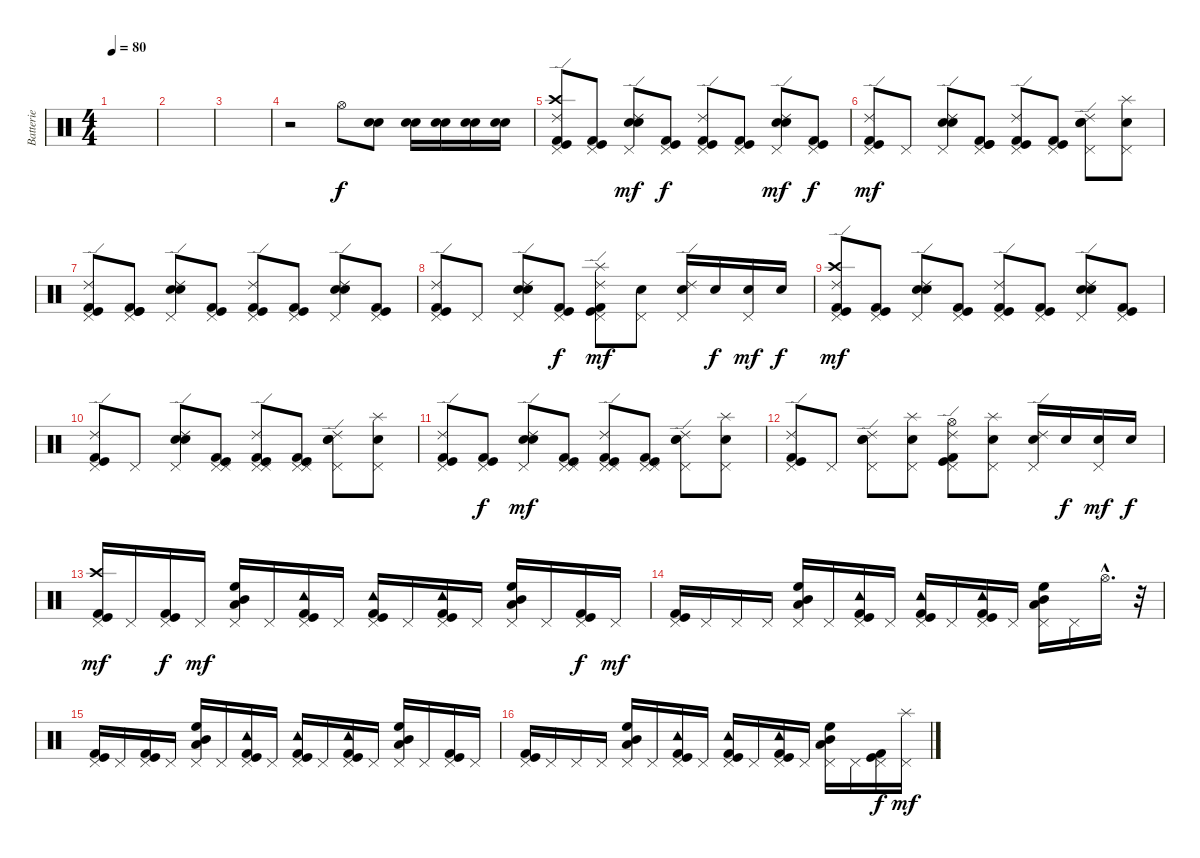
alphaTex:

\track ("Batterie" "Batterie") {instrument percussion}
\staff {score}
\articulation defaults
\ts (4 4)
\tempo 80
\clef neutral
\ks c
|
|
|
r.2 "Hi-Hat (open)".8 ("Electric Snare (hit)" "Snare (hit) 2").8 ("Electric Snare (hit)" "Snare (hit) 2").16 ("Electric Snare (hit)" "Snare (hit) 2").16 ("Electric Snare (hit)" "Snare (hit) 2").16 ("Electric Snare (hit)" "Snare (hit) 2").16 |
("Pedal Hi-Hat (hit)" "Crash high (hit)" "Ride (edge) 2" "Kick (hit)" "Kick (hit) 2").8 ("Pedal Hi-Hat (hit)" "Kick (hit)" "Kick (hit) 2").8{dy f} ("Pedal Hi-Hat (hit)" "Electric Snare (hit)" "Snare (hit) 2" "Ride (edge) 2").8{dy mf} ("Pedal Hi-Hat (hit)" "Kick (hit)" "Kick (hit) 2").8{dy f} ("Pedal Hi-Hat (hit)" "Ride (edge) 2" "Kick (hit)" "Kick (hit) 2").8 ("Pedal Hi-Hat (hit)" "Kick (hit)" "Kick (hit) 2").8 ("Pedal Hi-Hat (hit)" "Electric Snare (hit)" "Snare (hit) 2" "Ride (edge) 2").8{dy mf} ("Pedal Hi-Hat (hit)" "Kick (hit)" "Kick (hit) 2").8{dy f} |
("Pedal Hi-Hat (hit)" "Ride (edge) 2" "Kick (hit)" "Kick (hit) 2").8{dy mf} "Pedal Hi-Hat (hit)".8 ("Pedal Hi-Hat (hit)" "Ride (edge) 2" "Snare (hit) 2" "Electric Snare (hit)").8 ("Pedal Hi-Hat (hit)" "Kick (hit)" "Kick (hit)" "Kick (hit) 2").8 ("Pedal Hi-Hat (hit)" "Ride (edge) 2" "Kick (hit)" "Kick (hit) 2").8 ("Pedal Hi-Hat (hit)" "Kick (hit)" "Kick (hit) 2").8 ("Pedal Hi-Hat (hit)" "Ride (edge) 2" "Snare (hit) 2" "Electric Snare (hit)").8 ("Pedal Hi-Hat (hit)" "Snare (hit) 2" "Splash (hit)").8 |
("Pedal Hi-Hat (hit)" "Ride (edge) 2" "Kick (hit)" "Kick (hit) 2").8 ("Pedal Hi-Hat (hit)" "Kick (hit)" "Kick (hit)" "Kick (hit) 2").8 ("Pedal Hi-Hat (hit)" "Ride (edge) 2" "Snare (hit) 2" "Electric Snare (hit)").8 ("Pedal Hi-Hat (hit)" "Kick (hit)" "Kick (hit) 2").8 ("Pedal Hi-Hat (hit)" "Ride (edge) 2" "Kick (hit)" "Kick (hit) 2").8 ("Pedal Hi-Hat (hit)" "Kick (hit)" "Kick (hit) 2").8 ("Pedal Hi-Hat (hit)" "Ride (edge) 2" "Snare (hit) 2" "Electric Snare (hit)").8 ("Pedal Hi-Hat (hit)" "Kick (hit)" "Kick (hit) 2").8 |
("Ride (edge) 2" "Pedal Hi-Hat (hit)" "Kick (hit)" "Kick (hit) 2").8 "Pedal Hi-Hat (hit)".8 ("Pedal Hi-Hat (hit)" "Snare (hit) 2" "Ride (edge) 2" "Electric Snare (hit)").8 ("Pedal Hi-Hat (hit)" "Kick (hit)" "Kick (hit) 2").8{dy f} ("Pedal Hi-Hat (hit)" "Splash (hit)" "Ride (edge) 2" "Kick (hit)" "Kick (hit) 2").8{dy mf} ("Pedal Hi-Hat (hit)" "Snare (hit) 2").8 ("Pedal Hi-Hat (hit)" "Snare (hit) 2" "Ride (edge) 2").16 "Snare (hit) 2".16{dy f} ("Pedal Hi-Hat (hit)" "Snare (hit) 2").16{dy mf} "Snare (hit) 2".16{dy f} |
("Pedal Hi-Hat (hit)" "Ride (edge) 2" "Crash high (hit)" "Kick (hit)" "Kick (hit) 2").8{dy mf} ("Pedal Hi-Hat (hit)" "Kick (hit)" "Kick (hit) 2").8 ("Pedal Hi-Hat (hit)" "Ride (edge) 2" "Snare (hit) 2" "Electric Snare (hit)").8 ("Pedal Hi-Hat (hit)" "Kick (hit)" "Kick (hit) 2").8 ("Pedal Hi-Hat (hit)" "Ride (edge) 2" "Kick (hit)" "Kick (hit) 2").8 ("Pedal Hi-Hat (hit)" "Kick (hit)" "Kick (hit) 2").8 ("Pedal Hi-Hat (hit)" "Ride (edge) 2" "Snare (hit) 2" "Electric Snare (hit)").8 ("Pedal Hi-Hat (hit)" "Kick (hit)" "Kick (hit) 2").8 |
("Pedal Hi-Hat (hit)" "Ride (edge) 2" "Kick (hit)" "Kick (hit) 2").8 "Pedal Hi-Hat (hit)".8 ("Pedal Hi-Hat (hit)" "Snare (hit) 2" "Ride (edge) 2" "Electric Snare (hit)").8 ("Pedal Hi-Hat (hit)" "Pedal Hi-Hat (hit)" "Kick (hit)" "Kick (hit) 2").8 ("Pedal Hi-Hat (hit)" "Ride (edge) 2" "Pedal Hi-Hat (hit)" "Kick (hit)" "Kick (hit) 2").8 ("Pedal Hi-Hat (hit)" "Pedal Hi-Hat (hit)" "Kick (hit)" "Kick (hit) 2").8 ("Pedal Hi-Hat (hit)" "Snare (hit) 2" "Ride (edge) 2" "Electric Snare (hit)").8 ("Pedal Hi-Hat (hit)" "Snare (hit) 2" "Splash (hit)").8 |
("Pedal Hi-Hat (hit)" "Ride (edge) 2" "Kick (hit)" "Kick (hit) 2").8 ("Pedal Hi-Hat (hit)" "Kick (hit)" "Kick (hit) 2").8{dy f} ("Pedal Hi-Hat (hit)" "Snare (hit) 2" "Ride (edge) 2" "Electric Snare (hit)").8{dy mf} ("Pedal Hi-Hat (hit)" "Pedal Hi-Hat (hit)" "Kick (hit)" "Kick (hit) 2").8 ("Pedal Hi-Hat (hit)" "Ride (edge) 2" "Pedal Hi-Hat (hit)" "Kick (hit)" "Kick (hit) 2").8 ("Pedal Hi-Hat (hit)" "Pedal Hi-Hat (hit)" "Kick (hit)" "Kick (hit) 2").8 ("Pedal Hi-Hat (hit)" "Ride (edge) 2" "Snare (hit) 2" "Electric Snare (hit)").8 ("Pedal Hi-Hat (hit)" "Splash (hit)" "Snare (hit) 2").8 |
("Pedal Hi-Hat (hit)" "Ride (edge) 2" "Kick (hit)" "Kick (hit) 2").8 "Pedal Hi-Hat (hit)".8 ("Pedal Hi-Hat (hit)" "Ride (edge) 2" "Snare (hit) 2" "Electric Snare (hit)").8 ("Pedal Hi-Hat (hit)" "Snare (hit) 2" "Splash (hit)").8 ("Pedal Hi-Hat (hit)" "Hi-Hat (open)" "Ride (edge) 2" "Kick (hit)" "Kick (hit) 2").8 ("Pedal Hi-Hat (hit)" "Splash (hit)" "Snare (hit) 2").8 ("Pedal Hi-Hat (hit)" "Snare (hit) 2" "Ride (edge) 2").16 "Snare (hit) 2".16{dy f} ("Pedal Hi-Hat (hit)" "Snare (hit) 2").16{dy mf} "Snare (hit) 2".16{dy f} |
("Pedal Hi-Hat (hit)" "Crash high (hit)" "Kick (hit)" "Kick (hit) 2").16{dy mf} "Pedal Hi-Hat (hit)".16 ("Pedal Hi-Hat (hit)" "Kick (hit)" "Kick (hit) 2").16{dy f} "Pedal Hi-Hat (hit)".16{dy mf} ("Pedal Hi-Hat (hit)" "Mid Tom (hit)" "High Floor Tom (hit)" "Low Tom (hit)").16 "Pedal Hi-Hat (hit)".16 ("Pedal Hi-Hat (hit)" "Tambourine (hit)" "Kick (hit)" "Kick (hit) 2").16 "Pedal Hi-Hat (hit)".16 ("Pedal Hi-Hat (hit)" "Tambourine (hit)" "Kick (hit)" "Kick (hit) 2").16 "Pedal Hi-Hat (hit)".16 ("Pedal Hi-Hat (hit)" "Tambourine (hit)" "Kick (hit)" "Kick (hit) 2").16 "Pedal Hi-Hat (hit)".16 ("Pedal Hi-Hat (hit)" "High Floor Tom (hit)" "Mid Tom (hit)" "Low Tom (hit)").16 "Pedal Hi-Hat (hit)".16 ("Pedal Hi-Hat (hit)" "Kick (hit)" "Kick (hit) 2").16{dy f} "Pedal Hi-Hat (hit)".16{dy mf} |
("Pedal Hi-Hat (hit)" "Kick (hit)" "Kick (hit) 2").16 "Pedal Hi-Hat (hit)".16 "Pedal Hi-Hat (hit)".16 "Pedal Hi-Hat (hit)".16 ("Pedal Hi-Hat (hit)" "High Floor Tom (hit)" "Mid Tom (hit)" "Low Tom (hit)").16 "Pedal Hi-Hat (hit)".16 ("Pedal Hi-Hat (hit)" "Tambourine (hit)" "Kick (hit)" "Kick (hit) 2").16 "Pedal Hi-Hat (hit)".16 ("Pedal Hi-Hat (hit)" "Tambourine (hit)" "Kick (hit)" "Kick (hit) 2").16 "Pedal Hi-Hat (hit)".16 ("Pedal Hi-Hat (hit)" "Tambourine (hit)" "Kick (hit)" "Kick (hit) 2").16 "Pedal Hi-Hat (hit)".16 ("Pedal Hi-Hat (hit)" "High Floor Tom (hit)" "Mid Tom (hit)" "Low Tom (hit)").16 "Pedal Hi-Hat (hit)".16 "Hi-Hat (open)"{hac}.16{d} r.32 |
("Pedal Hi-Hat (hit)" "Kick (hit)" "Kick (hit) 2").16 "Pedal Hi-Hat (hit)".16 ("Pedal Hi-Hat (hit)" "Kick (hit)" "Kick (hit) 2").16 "Pedal Hi-Hat (hit)".16 ("Pedal Hi-Hat (hit)" "High Floor Tom (hit)" "Mid Tom (hit)" "Low Tom (hit)").16 "Pedal Hi-Hat (hit)".16 ("Pedal Hi-Hat (hit)" "Tambourine (hit)" "Kick (hit)" "Kick (hit) 2").16 "Pedal Hi-Hat (hit)".16 ("Pedal Hi-Hat (hit)" "Tambourine (hit)" "Kick (hit)" "Kick (hit) 2").16 "Pedal Hi-Hat (hit)".16 ("Pedal Hi-Hat (hit)" "Tambourine (hit)" "Kick (hit)" "Kick (hit) 2").16 "Pedal Hi-Hat (hit)".16 ("Pedal Hi-Hat (hit)" "High Floor Tom (hit)" "Mid Tom (hit)" "Low Tom (hit)").16 "Pedal Hi-Hat (hit)".16 ("Pedal Hi-Hat (hit)" "Kick (hit)" "Kick (hit) 2").16 "Pedal Hi-Hat (hit)".16 |
("Pedal Hi-Hat (hit)" "Kick (hit)" "Kick (hit) 2").16 "Pedal Hi-Hat (hit)".16 "Pedal Hi-Hat (hit)".16 "Pedal Hi-Hat (hit)".16 ("Pedal Hi-Hat (hit)" "High Floor Tom (hit)" "Mid Tom (hit)" "Low Tom (hit)").16 "Pedal Hi-Hat (hit)".16 ("Pedal Hi-Hat (hit)" "Tambourine (hit)" "Kick (hit)" "Kick (hit) 2").16 "Pedal Hi-Hat (hit)".16 ("Pedal Hi-Hat (hit)" "Tambourine (hit)" "Kick (hit)" "Kick (hit) 2").16 "Pedal Hi-Hat (hit)".16 ("Pedal Hi-Hat (hit)" "Tambourine (hit)" "Kick (hit)" "Kick (hit) 2").16 "Pedal Hi-Hat (hit)".16 ("Pedal Hi-Hat (hit)" "High Floor Tom (hit)" "Mid Tom (hit)" "Low Tom (hit)").16 "Pedal Hi-Hat (hit)".16 ("Pedal Hi-Hat (hit)" "Kick (hit)" "Kick (hit) 2").16{dy f} ("Pedal Hi-Hat (hit)" "Splash (hit)").16{dy mf}
